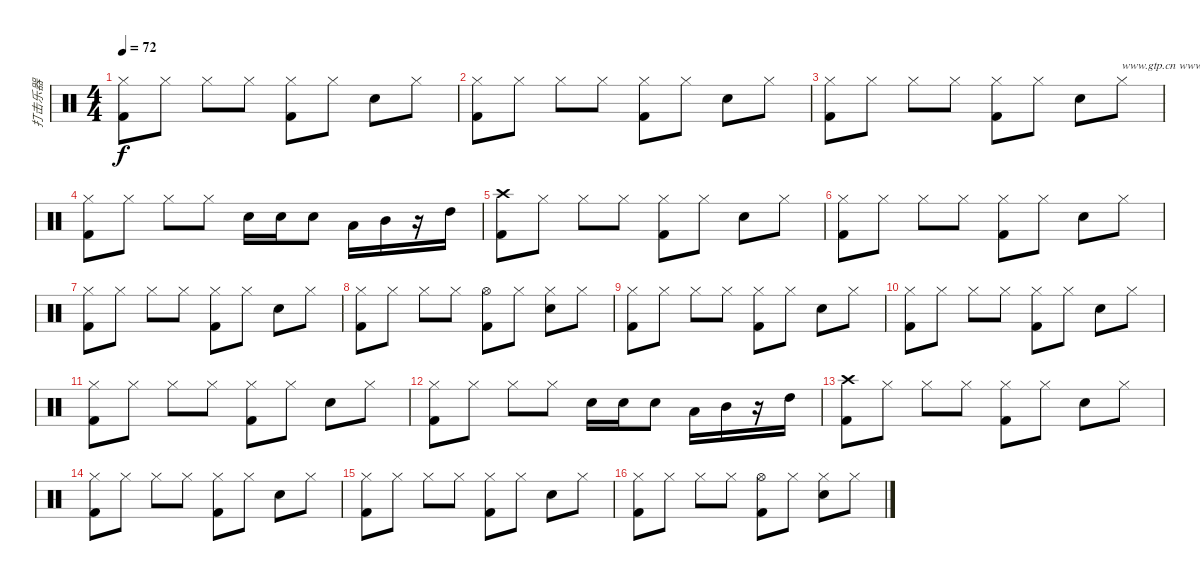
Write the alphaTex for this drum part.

\track ("打击乐器" "打击乐器") {instrument percussion}
\staff {score}
\articulation defaults
\ts (4 4)
\tempo 72
\clef neutral
\ks c
("Hi-Hat (closed)" "Kick (hit) 2").8{dy f} "Hi-Hat (closed)".8 "Hi-Hat (closed)".8 "Hi-Hat (closed)".8 ("Hi-Hat (closed)" "Kick (hit) 2").8 "Hi-Hat (closed)".8 "Electric Snare (hit)".8 "Hi-Hat (closed)".8 |
("Hi-Hat (closed)" "Kick (hit) 2").8 "Hi-Hat (closed)".8 "Hi-Hat (closed)".8 "Hi-Hat (closed)".8 ("Hi-Hat (closed)" "Kick (hit) 2").8 "Hi-Hat (closed)".8 "Electric Snare (hit)".8 "Hi-Hat (closed)".8 |
("Hi-Hat (closed)" "Kick (hit) 2").8 "Hi-Hat (closed)".8 "Hi-Hat (closed)".8 "Hi-Hat (closed)".8 ("Hi-Hat (closed)" "Kick (hit) 2").8 "Hi-Hat (closed)".8 "Electric Snare (hit)".8 "Hi-Hat (closed)".8{txt "www.gtp.cn www.51gtp.com联合为您提供优秀的GTP!"} |
("Hi-Hat (closed)" "Kick (hit) 2").8 "Hi-Hat (closed)".8 "Hi-Hat (closed)".8 "Hi-Hat (closed)".8 "Electric Snare (hit)".16 "Electric Snare (hit)".16 "Electric Snare (hit)".8 "Low Tom (hit)".16 "Mid Tom (hit)".16 r.16 "High Tom (hit)".16 |
("Crash high (hit)" "Kick (hit) 2").8 "Hi-Hat (closed)".8 "Hi-Hat (closed)".8 "Hi-Hat (closed)".8 ("Hi-Hat (closed)" "Kick (hit) 2").8 "Hi-Hat (closed)".8 "Electric Snare (hit)".8 "Hi-Hat (closed)".8 |
("Hi-Hat (closed)" "Kick (hit) 2").8 "Hi-Hat (closed)".8 "Hi-Hat (closed)".8 "Hi-Hat (closed)".8 ("Hi-Hat (closed)" "Kick (hit) 2").8 "Hi-Hat (closed)".8 "Electric Snare (hit)".8 "Hi-Hat (closed)".8 |
("Hi-Hat (closed)" "Kick (hit) 2").8 "Hi-Hat (closed)".8 "Hi-Hat (closed)".8 "Hi-Hat (closed)".8 ("Hi-Hat (closed)" "Kick (hit) 2").8 "Hi-Hat (closed)".8 "Electric Snare (hit)".8 "Hi-Hat (closed)".8 |
("Hi-Hat (closed)" "Kick (hit) 2").8 "Hi-Hat (closed)".8 "Hi-Hat (closed)".8 "Hi-Hat (closed)".8 ("Hi-Hat (open)" "Kick (hit) 2").8 "Hi-Hat (closed)".8 ("Hi-Hat (closed)" "Electric Snare (hit)").8 "Hi-Hat (closed)".8 |
("Hi-Hat (closed)" "Kick (hit) 2").8 "Hi-Hat (closed)".8 "Hi-Hat (closed)".8 "Hi-Hat (closed)".8 ("Hi-Hat (closed)" "Kick (hit) 2").8 "Hi-Hat (closed)".8 "Electric Snare (hit)".8 "Hi-Hat (closed)".8 |
("Hi-Hat (closed)" "Kick (hit) 2").8 "Hi-Hat (closed)".8 "Hi-Hat (closed)".8 "Hi-Hat (closed)".8 ("Hi-Hat (closed)" "Kick (hit) 2").8 "Hi-Hat (closed)".8 "Electric Snare (hit)".8 "Hi-Hat (closed)".8 |
("Hi-Hat (closed)" "Kick (hit) 2").8 "Hi-Hat (closed)".8 "Hi-Hat (closed)".8 "Hi-Hat (closed)".8 ("Hi-Hat (closed)" "Kick (hit) 2").8 "Hi-Hat (closed)".8 "Electric Snare (hit)".8 "Hi-Hat (closed)".8 |
("Hi-Hat (closed)" "Kick (hit) 2").8 "Hi-Hat (closed)".8 "Hi-Hat (closed)".8 "Hi-Hat (closed)".8 "Electric Snare (hit)".16 "Electric Snare (hit)".16 "Electric Snare (hit)".8 "Low Tom (hit)".16 "Mid Tom (hit)".16 r.16 "High Tom (hit)".16 |
("Crash high (hit)" "Kick (hit) 2").8 "Hi-Hat (closed)".8 "Hi-Hat (closed)".8 "Hi-Hat (closed)".8 ("Hi-Hat (closed)" "Kick (hit) 2").8 "Hi-Hat (closed)".8 "Electric Snare (hit)".8 "Hi-Hat (closed)".8 |
("Hi-Hat (closed)" "Kick (hit) 2").8 "Hi-Hat (closed)".8 "Hi-Hat (closed)".8 "Hi-Hat (closed)".8 ("Hi-Hat (closed)" "Kick (hit) 2").8 "Hi-Hat (closed)".8 "Electric Snare (hit)".8 "Hi-Hat (closed)".8 |
("Hi-Hat (closed)" "Kick (hit) 2").8 "Hi-Hat (closed)".8 "Hi-Hat (closed)".8 "Hi-Hat (closed)".8 ("Hi-Hat (closed)" "Kick (hit) 2").8 "Hi-Hat (closed)".8 "Electric Snare (hit)".8 "Hi-Hat (closed)".8 |
("Hi-Hat (closed)" "Kick (hit) 2").8 "Hi-Hat (closed)".8 "Hi-Hat (closed)".8 "Hi-Hat (closed)".8 ("Hi-Hat (open)" "Kick (hit) 2").8 "Hi-Hat (closed)".8 ("Hi-Hat (closed)" "Electric Snare (hit)").8 "Hi-Hat (closed)".8
